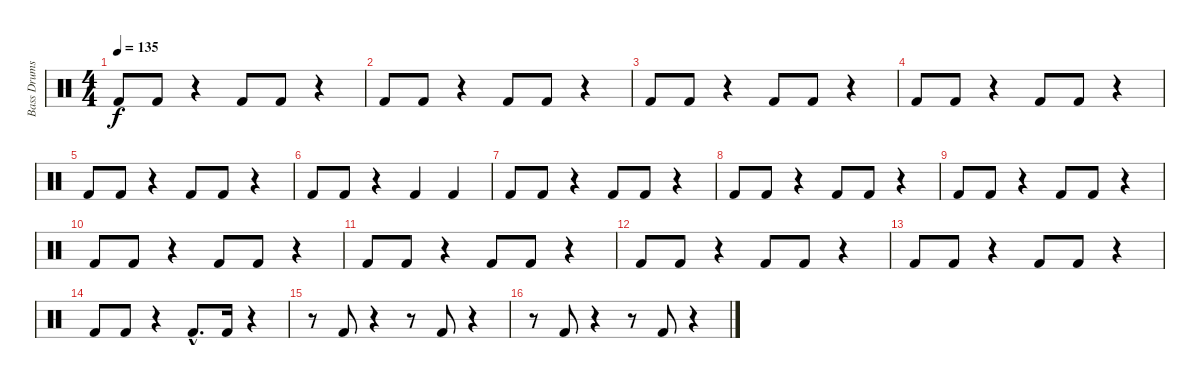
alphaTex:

\track ("Bass Drums" "Bass Drums") {instrument percussion}
\staff {score}
\articulation defaults
\ts (4 4)
\tempo 135
\clef neutral
\ks c "Kick (hit) 2".8{dy f} "Kick (hit) 2".8
r.4 "Kick (hit) 2".8 "Kick (hit) 2".8 r.4 |
"Kick (hit) 2".8 "Kick (hit) 2".8 r.4 "Kick (hit) 2".8 "Kick (hit) 2".8 r.4 |
"Kick (hit) 2".8 "Kick (hit) 2".8 r.4 "Kick (hit) 2".8 "Kick (hit) 2".8 r.4 |
"Kick (hit) 2".8 "Kick (hit) 2".8 r.4 "Kick (hit) 2".8 "Kick (hit) 2".8 r.4 |
"Kick (hit) 2".8 "Kick (hit) 2".8 r.4 "Kick (hit) 2".8 "Kick (hit) 2".8 r.4 |
"Kick (hit) 2".8 "Kick (hit) 2".8 r.4 "Kick (hit) 2".4 "Kick (hit) 2".4 |
"Kick (hit) 2".8 "Kick (hit) 2".8 r.4 "Kick (hit) 2".8 "Kick (hit) 2".8 r.4 |
"Kick (hit) 2".8 "Kick (hit) 2".8 r.4 "Kick (hit) 2".8 "Kick (hit) 2".8 r.4 |
"Kick (hit) 2".8 "Kick (hit) 2".8 r.4 "Kick (hit) 2".8 "Kick (hit) 2".8 r.4 |
"Kick (hit) 2".8 "Kick (hit) 2".8 r.4 "Kick (hit) 2".8 "Kick (hit) 2".8 r.4 |
"Kick (hit) 2".8 "Kick (hit) 2".8 r.4 "Kick (hit) 2".8 "Kick (hit) 2".8 r.4 |
"Kick (hit) 2".8 "Kick (hit) 2".8 r.4 "Kick (hit) 2".8 "Kick (hit) 2".8 r.4 |
"Kick (hit) 2".8 "Kick (hit) 2".8 r.4 "Kick (hit) 2".8 "Kick (hit) 2".8 r.4 |
"Kick (hit) 2".8 "Kick (hit) 2".8 r.4 "Kick (hit) 2"{hac}.8{d} "Kick (hit) 2".16 r.4 |
r.8 "Kick (hit) 2".8 r.4 r.8 "Kick (hit) 2".8 r.4 |
r.8 "Kick (hit) 2".8 r.4 r.8 "Kick (hit) 2".8 r.4
